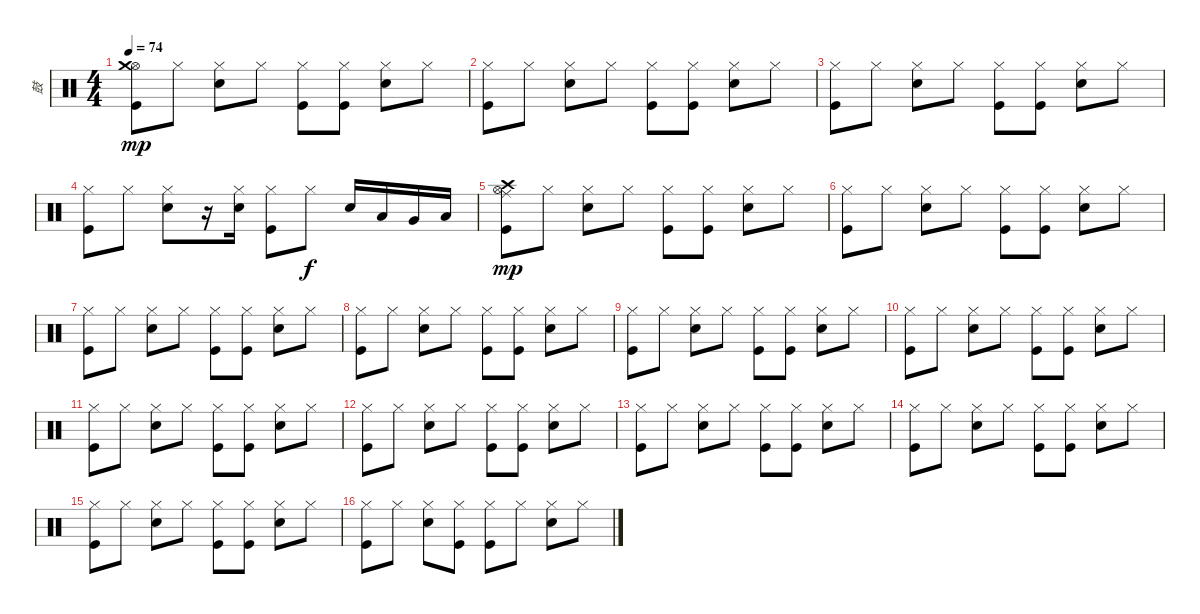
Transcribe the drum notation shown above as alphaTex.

\track ("鼓" "鼓") {instrument percussion}
\staff {score}
\articulation defaults
\ts (4 4)
\tempo 74
\clef neutral
\ks c
("Kick (hit)" "Hi-Hat (open)" "Crash medium (hit)").8{dy mp} "Hi-Hat (closed)".8 ("Electric Snare (hit)" "Hi-Hat (closed)").8 "Hi-Hat (closed)".8 ("Kick (hit)" "Hi-Hat (closed)").8 ("Kick (hit)" "Hi-Hat (closed)").8 ("Electric Snare (hit)" "Hi-Hat (closed)").8 "Hi-Hat (closed)".8 |
("Kick (hit)" "Hi-Hat (closed)").8 "Hi-Hat (closed)".8 ("Electric Snare (hit)" "Hi-Hat (closed)").8 "Hi-Hat (closed)".8 ("Kick (hit)" "Hi-Hat (closed)").8 ("Kick (hit)" "Hi-Hat (closed)").8 ("Electric Snare (hit)" "Hi-Hat (closed)").8 "Hi-Hat (closed)".8 |
("Kick (hit)" "Hi-Hat (closed)").8 "Hi-Hat (closed)".8 ("Electric Snare (hit)" "Hi-Hat (closed)").8 "Hi-Hat (closed)".8 ("Kick (hit)" "Hi-Hat (closed)").8 ("Kick (hit)" "Hi-Hat (closed)").8 ("Electric Snare (hit)" "Hi-Hat (closed)").8 "Hi-Hat (closed)".8 |
("Kick (hit)" "Hi-Hat (closed)").8 "Hi-Hat (closed)".8 ("Electric Snare (hit)" "Hi-Hat (closed)").8 r.16 ("Electric Snare (hit)" "Hi-Hat (closed)").16 ("Kick (hit)" "Hi-Hat (closed)").8 "Hi-Hat (closed)".8{dy f} "Electric Snare (hit)".16 "Low Tom (hit)".16 "Very Low Tom (hit)".16 "Low Floor Tom (hit)".16 |
("Kick (hit)" "Hi-Hat (open)" "Ride (middle)" "Crash high (hit)").8{dy mp} "Hi-Hat (closed)".8 ("Electric Snare (hit)" "Hi-Hat (closed)").8 "Hi-Hat (closed)".8 ("Kick (hit)" "Hi-Hat (closed)").8 ("Kick (hit)" "Hi-Hat (closed)").8 ("Electric Snare (hit)" "Hi-Hat (closed)").8 "Hi-Hat (closed)".8 |
("Kick (hit)" "Hi-Hat (closed)").8 "Hi-Hat (closed)".8 ("Electric Snare (hit)" "Hi-Hat (closed)").8 "Hi-Hat (closed)".8 ("Kick (hit)" "Hi-Hat (closed)").8 ("Kick (hit)" "Hi-Hat (closed)").8 ("Electric Snare (hit)" "Hi-Hat (closed)").8 "Hi-Hat (closed)".8 |
("Kick (hit)" "Hi-Hat (closed)").8 "Hi-Hat (closed)".8 ("Electric Snare (hit)" "Hi-Hat (closed)").8 "Hi-Hat (closed)".8 ("Kick (hit)" "Hi-Hat (closed)").8 ("Kick (hit)" "Hi-Hat (closed)").8 ("Electric Snare (hit)" "Hi-Hat (closed)").8 "Hi-Hat (closed)".8 |
("Kick (hit)" "Hi-Hat (closed)").8 "Hi-Hat (closed)".8 ("Electric Snare (hit)" "Hi-Hat (closed)").8 "Hi-Hat (closed)".8 ("Kick (hit)" "Hi-Hat (closed)").8 ("Kick (hit)" "Hi-Hat (closed)").8 ("Electric Snare (hit)" "Hi-Hat (closed)").8 "Hi-Hat (closed)".8 |
("Kick (hit)" "Hi-Hat (closed)").8 "Hi-Hat (closed)".8 ("Electric Snare (hit)" "Hi-Hat (closed)").8 "Hi-Hat (closed)".8 ("Kick (hit)" "Hi-Hat (closed)").8 ("Kick (hit)" "Hi-Hat (closed)").8 ("Electric Snare (hit)" "Hi-Hat (closed)").8 "Hi-Hat (closed)".8 |
("Kick (hit)" "Hi-Hat (closed)").8 "Hi-Hat (closed)".8 ("Electric Snare (hit)" "Hi-Hat (closed)").8 "Hi-Hat (closed)".8 ("Kick (hit)" "Hi-Hat (closed)").8 ("Kick (hit)" "Hi-Hat (closed)").8 ("Electric Snare (hit)" "Hi-Hat (closed)").8 "Hi-Hat (closed)".8 |
("Kick (hit)" "Hi-Hat (closed)").8 "Hi-Hat (closed)".8 ("Electric Snare (hit)" "Hi-Hat (closed)").8 "Hi-Hat (closed)".8 ("Kick (hit)" "Hi-Hat (closed)").8 ("Kick (hit)" "Hi-Hat (closed)").8 ("Electric Snare (hit)" "Hi-Hat (closed)").8 "Hi-Hat (closed)".8 |
("Kick (hit)" "Hi-Hat (closed)").8 "Hi-Hat (closed)".8 ("Electric Snare (hit)" "Hi-Hat (closed)").8 "Hi-Hat (closed)".8 ("Kick (hit)" "Hi-Hat (closed)").8 ("Kick (hit)" "Hi-Hat (closed)").8 ("Electric Snare (hit)" "Hi-Hat (closed)").8 "Hi-Hat (closed)".8 |
("Kick (hit)" "Hi-Hat (closed)").8 "Hi-Hat (closed)".8 ("Electric Snare (hit)" "Hi-Hat (closed)").8 "Hi-Hat (closed)".8 ("Kick (hit)" "Hi-Hat (closed)").8 ("Kick (hit)" "Hi-Hat (closed)").8 ("Electric Snare (hit)" "Hi-Hat (closed)").8 "Hi-Hat (closed)".8 |
("Kick (hit)" "Hi-Hat (closed)").8 "Hi-Hat (closed)".8 ("Electric Snare (hit)" "Hi-Hat (closed)").8 "Hi-Hat (closed)".8 ("Kick (hit)" "Hi-Hat (closed)").8 ("Kick (hit)" "Hi-Hat (closed)").8 ("Electric Snare (hit)" "Hi-Hat (closed)").8 "Hi-Hat (closed)".8 |
("Kick (hit)" "Hi-Hat (closed)").8 "Hi-Hat (closed)".8 ("Electric Snare (hit)" "Hi-Hat (closed)").8 "Hi-Hat (closed)".8 ("Kick (hit)" "Hi-Hat (closed)").8 ("Kick (hit)" "Hi-Hat (closed)").8 ("Electric Snare (hit)" "Hi-Hat (closed)").8 "Hi-Hat (closed)".8 |
("Kick (hit)" "Hi-Hat (closed)").8 "Hi-Hat (closed)".8 ("Electric Snare (hit)" "Hi-Hat (closed)").8 ("Kick (hit)" "Hi-Hat (closed)").8 ("Kick (hit)" "Hi-Hat (closed)").8 "Hi-Hat (closed)".8 ("Electric Snare (hit)" "Hi-Hat (closed)").8 "Hi-Hat (closed)".8
